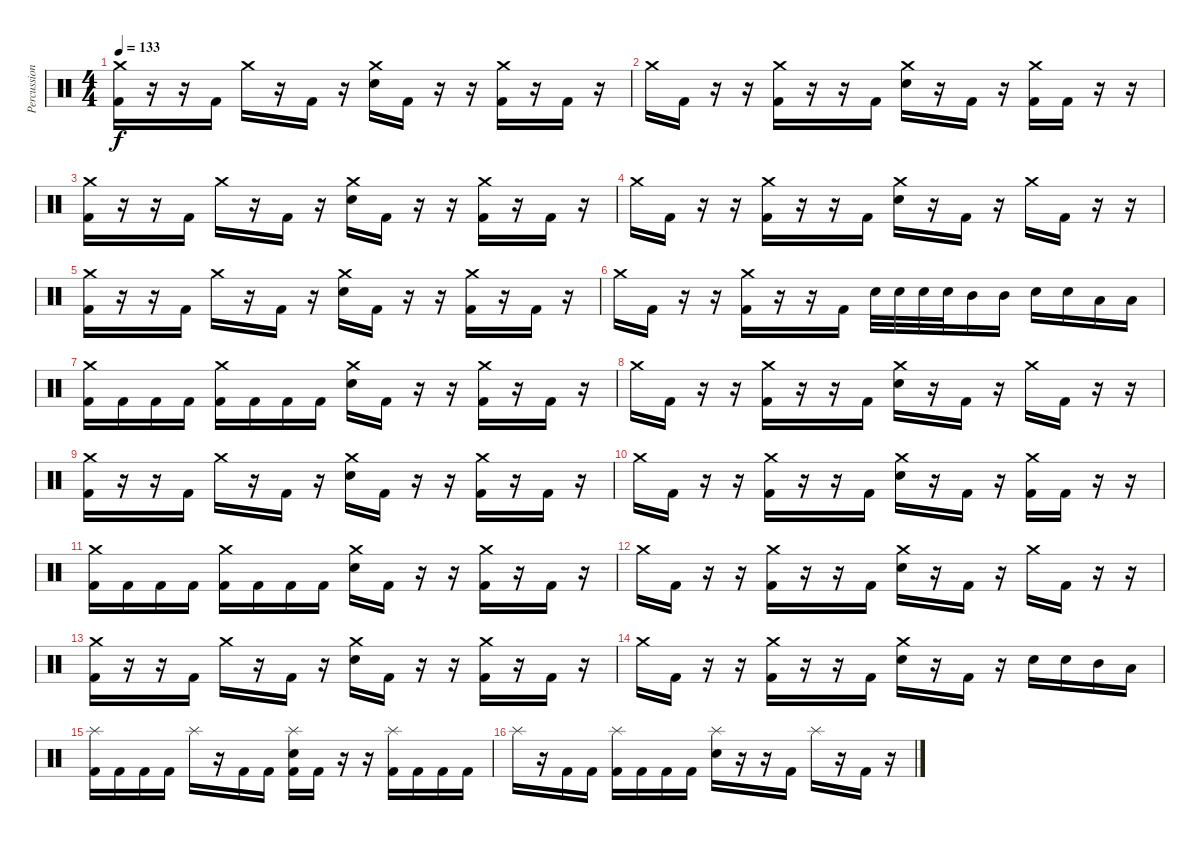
\track ("Percussion" "Percussion") {instrument percussion}
\staff {score}
\articulation defaults
\ts (4 4)
\tempo 133
\clef neutral
\ks c
("Crash medium (hit)" "Kick (hit) 2").16{dy f} r.16 r.16 "Kick (hit) 2".16 "Crash medium (hit)".16 r.16 "Kick (hit) 2".16 r.16 ("Crash medium (hit)" "Electric Snare (hit)").16 "Kick (hit) 2".16 r.16 r.16 ("Crash medium (hit)" "Kick (hit) 2").16 r.16 "Kick (hit) 2".16 r.16 |
"Crash medium (hit)".16 "Kick (hit) 2".16 r.16 r.16 ("Crash medium (hit)" "Kick (hit) 2").16 r.16 r.16 "Kick (hit) 2".16 ("Crash medium (hit)" "Electric Snare (hit)").16 r.16 "Kick (hit) 2".16 r.16 ("Crash medium (hit)" "Kick (hit) 2").16 "Kick (hit) 2".16 r.16 r.16 |
("Crash medium (hit)" "Kick (hit) 2").16 r.16 r.16 "Kick (hit) 2".16 "Crash medium (hit)".16 r.16 "Kick (hit) 2".16 r.16 ("Crash medium (hit)" "Electric Snare (hit)").16 "Kick (hit) 2".16 r.16 r.16 ("Crash medium (hit)" "Kick (hit) 2").16 r.16 "Kick (hit) 2".16 r.16 |
"Crash medium (hit)".16 "Kick (hit) 2".16 r.16 r.16 ("Crash medium (hit)" "Kick (hit) 2").16 r.16 r.16 "Kick (hit) 2".16 ("Crash medium (hit)" "Electric Snare (hit)").16 r.16 "Kick (hit) 2".16 r.16 "Crash medium (hit)".16 "Kick (hit) 2".16 r.16 r.16 |
("Crash medium (hit)" "Kick (hit) 2").16 r.16 r.16 "Kick (hit) 2".16 "Crash medium (hit)".16 r.16 "Kick (hit) 2".16 r.16 ("Crash medium (hit)" "Electric Snare (hit)").16 "Kick (hit) 2".16 r.16 r.16 ("Crash medium (hit)" "Kick (hit) 2").16 r.16 "Kick (hit) 2".16 r.16 |
"Crash medium (hit)".16 "Kick (hit) 2".16 r.16 r.16 ("Crash medium (hit)" "Kick (hit) 2").16 r.16 r.16 "Kick (hit) 2".16 "Electric Snare (hit)".32 "Electric Snare (hit)".32 "Electric Snare (hit)".32 "Electric Snare (hit)".32 "Mid Tom (hit)".16 "Mid Tom (hit)".16 "Electric Snare (hit)".16 "Electric Snare (hit)".16 "Low Tom (hit)".16 "Low Tom (hit)".16 |
("Crash medium (hit)" "Kick (hit) 2").16 "Kick (hit) 2".16 "Kick (hit) 2".16 "Kick (hit) 2".16 ("Crash medium (hit)" "Kick (hit) 2").16 "Kick (hit) 2".16 "Kick (hit) 2".16 "Kick (hit) 2".16 ("Crash medium (hit)" "Electric Snare (hit)").16 "Kick (hit) 2".16 r.16 r.16 ("Crash medium (hit)" "Kick (hit) 2").16 r.16 "Kick (hit) 2".16 r.16 |
"Crash medium (hit)".16 "Kick (hit) 2".16 r.16 r.16 ("Crash medium (hit)" "Kick (hit) 2").16 r.16 r.16 "Kick (hit) 2".16 ("Crash medium (hit)" "Electric Snare (hit)").16 r.16 "Kick (hit) 2".16 r.16 "Crash medium (hit)".16 "Kick (hit) 2".16 r.16 r.16 |
("Crash medium (hit)" "Kick (hit) 2").16 r.16 r.16 "Kick (hit) 2".16 "Crash medium (hit)".16 r.16 "Kick (hit) 2".16 r.16 ("Crash medium (hit)" "Electric Snare (hit)").16 "Kick (hit) 2".16 r.16 r.16 ("Crash medium (hit)" "Kick (hit) 2").16 r.16 "Kick (hit) 2".16 r.16 |
"Crash medium (hit)".16 "Kick (hit) 2".16 r.16 r.16 ("Crash medium (hit)" "Kick (hit) 2").16 r.16 r.16 "Kick (hit) 2".16 ("Crash medium (hit)" "Electric Snare (hit)").16 r.16 "Kick (hit) 2".16 r.16 ("Crash medium (hit)" "Kick (hit) 2").16 "Kick (hit) 2".16 r.16 r.16 |
("Crash medium (hit)" "Kick (hit) 2").16 "Kick (hit) 2".16 "Kick (hit) 2".16 "Kick (hit) 2".16 ("Crash medium (hit)" "Kick (hit) 2").16 "Kick (hit) 2".16 "Kick (hit) 2".16 "Kick (hit) 2".16 ("Crash medium (hit)" "Electric Snare (hit)").16 "Kick (hit) 2".16 r.16 r.16 ("Crash medium (hit)" "Kick (hit) 2").16 r.16 "Kick (hit) 2".16 r.16 |
"Crash medium (hit)".16 "Kick (hit) 2".16 r.16 r.16 ("Crash medium (hit)" "Kick (hit) 2").16 r.16 r.16 "Kick (hit) 2".16 ("Crash medium (hit)" "Electric Snare (hit)").16 r.16 "Kick (hit) 2".16 r.16 "Crash medium (hit)".16 "Kick (hit) 2".16 r.16 r.16 |
("Crash medium (hit)" "Kick (hit) 2").16 r.16 r.16 "Kick (hit) 2".16 "Crash medium (hit)".16 r.16 "Kick (hit) 2".16 r.16 ("Crash medium (hit)" "Electric Snare (hit)").16 "Kick (hit) 2".16 r.16 r.16 ("Crash medium (hit)" "Kick (hit) 2").16 r.16 "Kick (hit) 2".16 r.16 |
"Crash medium (hit)".16 "Kick (hit) 2".16 r.16 r.16 ("Crash medium (hit)" "Kick (hit) 2").16 r.16 r.16 "Kick (hit) 2".16 ("Crash medium (hit)" "Electric Snare (hit)").16 r.16 "Kick (hit) 2".16 r.16 "Electric Snare (hit)".16 "Electric Snare (hit)".16 "Mid Tom (hit)".16 "Low Tom (hit)".16 |
("Splash (hit)" "Kick (hit) 2").16 "Kick (hit) 2".16 "Kick (hit) 2".16 "Kick (hit) 2".16 "Splash (hit)".16 r.16 "Kick (hit) 2".16 "Kick (hit) 2".16 ("Splash (hit)" "Electric Snare (hit)" "Kick (hit) 2").16 "Kick (hit) 2".16 r.16 r.16 ("Splash (hit)" "Kick (hit) 2").16 "Kick (hit) 2".16 "Kick (hit) 2".16 "Kick (hit) 2".16 |
"Splash (hit)".16 r.16 "Kick (hit) 2".16 "Kick (hit) 2".16 ("Splash (hit)" "Kick (hit) 2").16 "Kick (hit) 2".16 "Kick (hit) 2".16 "Kick (hit) 2".16 ("Splash (hit)" "Electric Snare (hit)").16 r.16 r.16 "Kick (hit) 2".16 "Splash (hit)".16 r.16 "Kick (hit) 2".16 r.16
